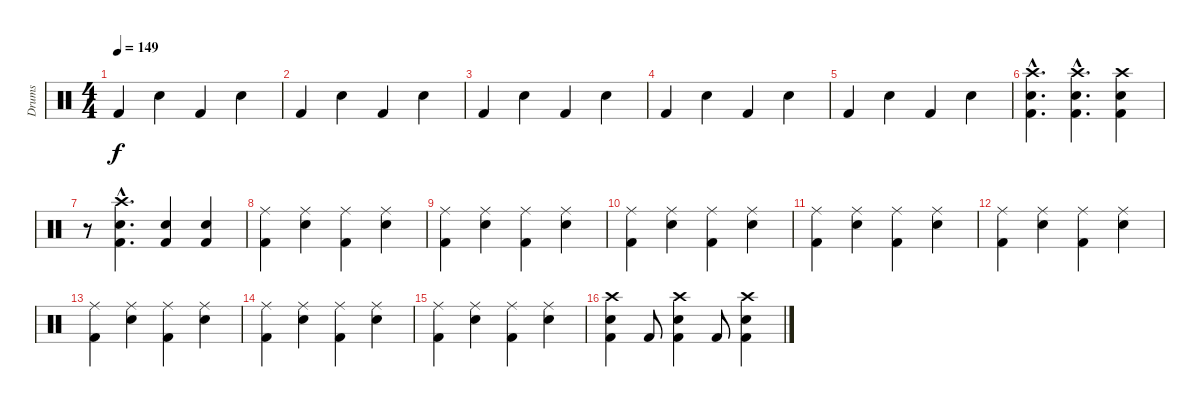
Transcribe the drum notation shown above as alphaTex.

\track ("Drums" "Drums") {instrument percussion}
\staff {score}
\articulation defaults
\ts (4 4)
\tempo 149
\clef neutral
\ks c "Kick (hit) 2".4{dy f} "Snare (hit) 2".4 "Kick (hit) 2".4 "Snare (hit) 2".4
|
"Kick (hit) 2".4 "Snare (hit) 2".4 "Kick (hit) 2".4 "Snare (hit) 2".4 |
"Kick (hit) 2".4 "Snare (hit) 2".4 "Kick (hit) 2".4 "Snare (hit) 2".4 |
"Kick (hit) 2".4 "Snare (hit) 2".4 "Kick (hit) 2".4 "Snare (hit) 2".4 |
"Kick (hit) 2".4 "Snare (hit) 2".4 "Kick (hit) 2".4 "Snare (hit) 2".4 |
("Crash high (hit)"{hac} "Snare (hit) 2"{hac} "Kick (hit) 2"{hac}).4{d} ("Crash high (hit)"{hac} "Snare (hit) 2"{hac} "Kick (hit) 2"{hac}).4{d} ("Crash high (hit)" "Snare (hit) 2" "Kick (hit) 2").4 |
r.8 ("Crash high (hit)"{hac} "Snare (hit) 2"{hac} "Kick (hit) 2"{hac}).4{d} ("Snare (hit) 2" "Kick (hit) 2").4 ("Snare (hit) 2" "Kick (hit) 2").4 |
("Ride (middle)" "Kick (hit) 2").4 ("Ride (middle)" "Snare (hit) 2").4 ("Ride (middle)" "Kick (hit) 2").4 ("Ride (middle)" "Snare (hit) 2").4 |
("Ride (middle)" "Kick (hit) 2").4 ("Ride (middle)" "Snare (hit) 2").4 ("Ride (middle)" "Kick (hit) 2").4 ("Ride (middle)" "Snare (hit) 2").4 |
("Ride (middle)" "Kick (hit) 2").4 ("Ride (middle)" "Snare (hit) 2").4 ("Ride (middle)" "Kick (hit) 2").4 ("Ride (middle)" "Snare (hit) 2").4 |
("Ride (middle)" "Kick (hit) 2").4 ("Ride (middle)" "Snare (hit) 2").4 ("Ride (middle)" "Kick (hit) 2").4 ("Ride (middle)" "Snare (hit) 2").4 |
("Ride (middle)" "Kick (hit) 2").4 ("Ride (middle)" "Snare (hit) 2").4 ("Ride (middle)" "Kick (hit) 2").4 ("Ride (middle)" "Snare (hit) 2").4 |
("Ride (middle)" "Kick (hit) 2").4 ("Ride (middle)" "Snare (hit) 2").4 ("Ride (middle)" "Kick (hit) 2").4 ("Ride (middle)" "Snare (hit) 2").4 |
("Ride (middle)" "Kick (hit) 2").4 ("Ride (middle)" "Snare (hit) 2").4 ("Ride (middle)" "Kick (hit) 2").4 ("Ride (middle)" "Snare (hit) 2").4 |
("Ride (middle)" "Kick (hit) 2").4 ("Ride (middle)" "Snare (hit) 2").4 ("Ride (middle)" "Kick (hit) 2").4 ("Ride (middle)" "Snare (hit) 2").4 |
("Crash high (hit)" "Snare (hit) 2" "Kick (hit) 2").4 "Kick (hit) 2".8 ("Crash high (hit)" "Snare (hit) 2" "Kick (hit) 2").4 "Kick (hit) 2".8 ("Crash high (hit)" "Snare (hit) 2" "Kick (hit) 2").4
